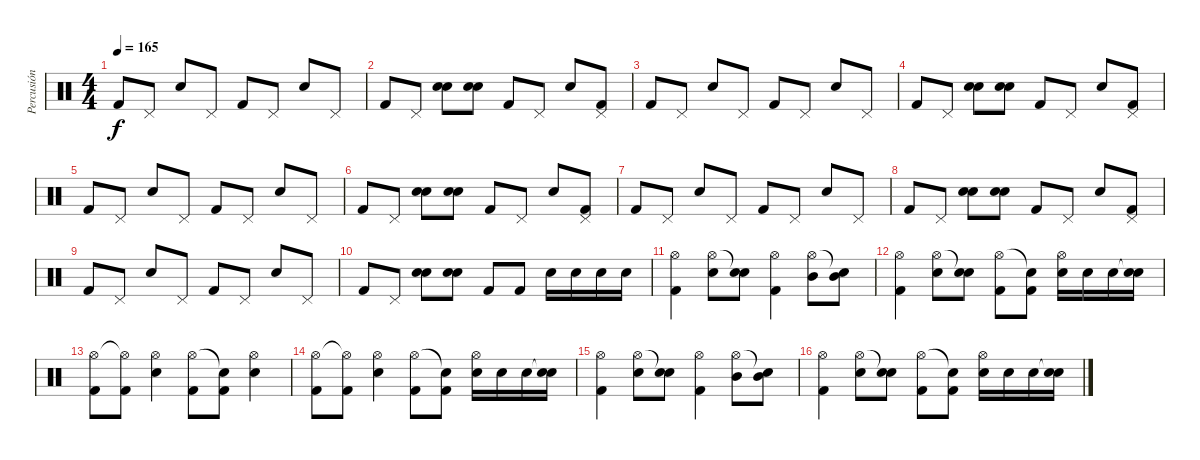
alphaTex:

\track ("Percusión" "Percusión") {instrument percussion}
\staff {score}
\articulation defaults
\ts (4 4)
\tempo 165
\clef neutral
\ks c "Kick (hit) 2".8{dy f} "Pedal Hi-Hat (hit)".8 "Snare (hit) 2".8 "Pedal Hi-Hat (hit)".8 "Kick (hit) 2".8 "Pedal Hi-Hat (hit)".8 "Snare (hit) 2".8 "Pedal Hi-Hat (hit)".8
|
"Kick (hit) 2".8 "Pedal Hi-Hat (hit)".8 ("Snare (hit) 2" "Snare (hit) 2").8 ("Snare (hit) 2" "Snare (hit) 2").8 "Kick (hit) 2".8 "Pedal Hi-Hat (hit)".8 "Snare (hit) 2".8 ("Kick (hit) 2" "Pedal Hi-Hat (hit)").8 |
"Kick (hit) 2".8 "Pedal Hi-Hat (hit)".8 "Snare (hit) 2".8 "Pedal Hi-Hat (hit)".8 "Kick (hit) 2".8 "Pedal Hi-Hat (hit)".8 "Snare (hit) 2".8 "Pedal Hi-Hat (hit)".8 |
"Kick (hit) 2".8 "Pedal Hi-Hat (hit)".8 ("Snare (hit) 2" "Snare (hit) 2").8 ("Snare (hit) 2" "Snare (hit) 2").8 "Kick (hit) 2".8 "Pedal Hi-Hat (hit)".8 "Snare (hit) 2".8 ("Kick (hit) 2" "Pedal Hi-Hat (hit)").8 |
"Kick (hit) 2".8 "Pedal Hi-Hat (hit)".8 "Snare (hit) 2".8 "Pedal Hi-Hat (hit)".8 "Kick (hit) 2".8 "Pedal Hi-Hat (hit)".8 "Snare (hit) 2".8 "Pedal Hi-Hat (hit)".8 |
"Kick (hit) 2".8 "Pedal Hi-Hat (hit)".8 ("Snare (hit) 2" "Snare (hit) 2").8 ("Snare (hit) 2" "Snare (hit) 2").8 "Kick (hit) 2".8 "Pedal Hi-Hat (hit)".8 "Snare (hit) 2".8 ("Kick (hit) 2" "Pedal Hi-Hat (hit)").8 |
"Kick (hit) 2".8 "Pedal Hi-Hat (hit)".8 "Snare (hit) 2".8 "Pedal Hi-Hat (hit)".8 "Kick (hit) 2".8 "Pedal Hi-Hat (hit)".8 "Snare (hit) 2".8 "Pedal Hi-Hat (hit)".8 |
"Kick (hit) 2".8 "Pedal Hi-Hat (hit)".8 ("Snare (hit) 2" "Snare (hit) 2").8 ("Snare (hit) 2" "Snare (hit) 2").8 "Kick (hit) 2".8 "Pedal Hi-Hat (hit)".8 "Snare (hit) 2".8 ("Kick (hit) 2" "Pedal Hi-Hat (hit)").8 |
"Kick (hit) 2".8 "Pedal Hi-Hat (hit)".8 "Snare (hit) 2".8 "Pedal Hi-Hat (hit)".8 "Kick (hit) 2".8 "Pedal Hi-Hat (hit)".8 "Snare (hit) 2".8 "Pedal Hi-Hat (hit)".8 |
"Kick (hit) 2".8 "Pedal Hi-Hat (hit)".8 ("Snare (hit) 2" "Snare (hit) 2").8 ("Snare (hit) 2" "Snare (hit) 2").8 "Kick (hit) 2".8 "Kick (hit) 2".8 "Snare (hit) 2".16 "Snare (hit) 2".16 "Snare (hit) 2".16 "Snare (hit) 2".16 |
("Hi-Hat (open)" "Kick (hit) 2").4 ("Hi-Hat (open)" "Snare (hit) 2").8 ("Snare (hit)"{t} "Snare (hit) 2").8 ("Hi-Hat (open)" "Kick (hit) 2").4 ("Hi-Hat (open)" "Mid Tom (hit)").8 ("Snare (hit)"{t} "Mid Tom (hit)").8 |
("Hi-Hat (open)" "Kick (hit) 2").4 ("Hi-Hat (open)" "Snare (hit) 2").8 ("Snare (hit)"{t} "Snare (hit) 2").8 ("Hi-Hat (open)" "Kick (hit) 2").8 ("Snare (hit)"{t} "Kick (hit) 2").8 ("Hi-Hat (open)" "Snare (hit) 2").16 "Snare (hit) 2".16 "Snare (hit) 2".16 ("Snare (hit)"{t} "Snare (hit) 2").16 |
("Hi-Hat (open)" "Kick (hit) 2").8 ("Hi-Hat (open)"{t} "Kick (hit) 2").8 ("Hi-Hat (open)" "Snare (hit) 2").4 ("Hi-Hat (open)" "Kick (hit) 2").8 ("Snare (hit)"{t} "Kick (hit) 2").8 ("Hi-Hat (open)" "Snare (hit) 2").4 |
("Hi-Hat (open)" "Kick (hit) 2").8 ("Hi-Hat (open)"{t} "Kick (hit) 2").8 ("Hi-Hat (open)" "Snare (hit) 2").4 ("Hi-Hat (open)" "Kick (hit) 2").8 ("Snare (hit)"{t} "Kick (hit) 2").8 ("Hi-Hat (open)" "Snare (hit) 2").16 "Snare (hit) 2".16 "Snare (hit) 2".16 ("Snare (hit)"{t} "Snare (hit) 2").16 |
("Hi-Hat (open)" "Kick (hit) 2").4 ("Hi-Hat (open)" "Snare (hit) 2").8 ("Snare (hit)"{t} "Snare (hit) 2").8 ("Hi-Hat (open)" "Kick (hit) 2").4 ("Hi-Hat (open)" "Mid Tom (hit)").8 ("Snare (hit)"{t} "Mid Tom (hit)").8 |
("Hi-Hat (open)" "Kick (hit) 2").4 ("Hi-Hat (open)" "Snare (hit) 2").8 ("Snare (hit)"{t} "Snare (hit) 2").8 ("Hi-Hat (open)" "Kick (hit) 2").8 ("Snare (hit)"{t} "Kick (hit) 2").8 ("Hi-Hat (open)" "Snare (hit) 2").16 "Snare (hit) 2".16 "Snare (hit) 2".16 ("Snare (hit)"{t} "Snare (hit) 2").16
